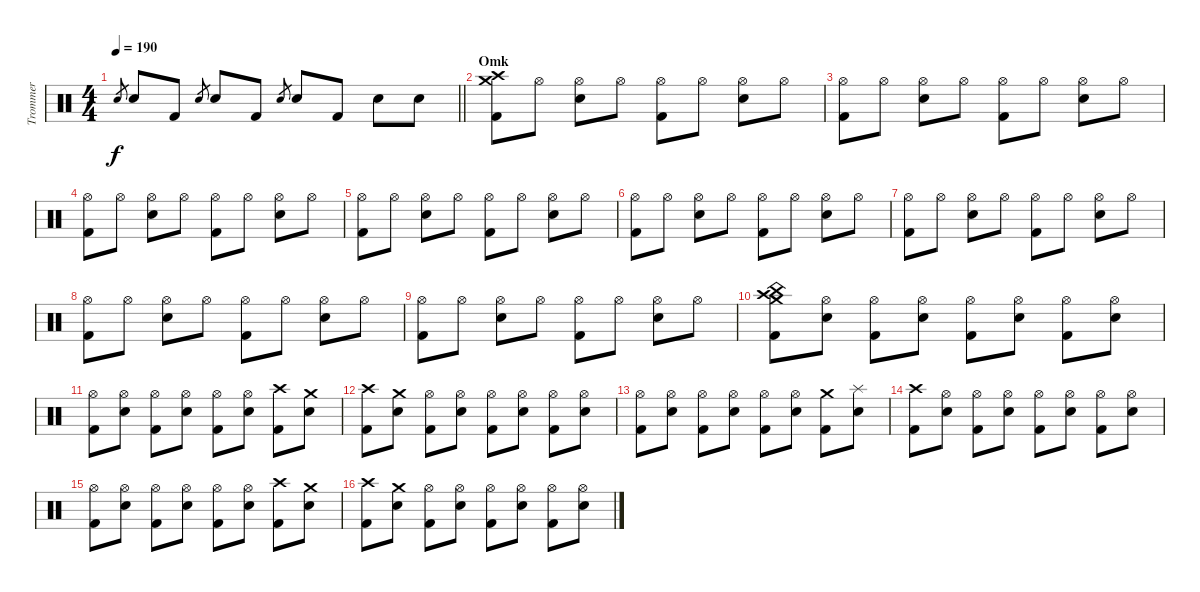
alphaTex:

\track ("Trommer" "Trommer") {instrument percussion}
\staff {score}
\articulation defaults
\ts (4 4)
\tempo 190
\clef neutral
\barLineRight lightlight
\ks c "Snare (hit) 2".8{gr dy f} "Snare (hit) 2".8 "Kick (hit) 2".8 "Snare (hit) 2".8{gr} "Snare (hit) 2".8 "Kick (hit) 2".8 "Snare (hit) 2".8{gr} "Snare (hit) 2".8 "Kick (hit) 2".8 "Snare (hit) 2".8 "Snare (hit) 2".8
|
\section ("" "Omk")
("Crash medium (hit)" "Crash high (hit)" "Kick (hit) 2").8 "Hi-Hat (open)".8 ("Hi-Hat (open)" "Snare (hit) 2").8 "Hi-Hat (open)".8 ("Hi-Hat (open)" "Kick (hit) 2").8 "Hi-Hat (open)".8 ("Hi-Hat (open)" "Snare (hit) 2").8 "Hi-Hat (open)".8 |
("Hi-Hat (open)" "Kick (hit) 2").8 "Hi-Hat (open)".8 ("Hi-Hat (open)" "Snare (hit) 2").8 "Hi-Hat (open)".8 ("Hi-Hat (open)" "Kick (hit) 2").8 "Hi-Hat (open)".8 ("Hi-Hat (open)" "Snare (hit) 2").8 "Hi-Hat (open)".8 |
("Hi-Hat (open)" "Kick (hit) 2").8 "Hi-Hat (open)".8 ("Hi-Hat (open)" "Snare (hit) 2").8 "Hi-Hat (open)".8 ("Hi-Hat (open)" "Kick (hit) 2").8 "Hi-Hat (open)".8 ("Hi-Hat (open)" "Snare (hit) 2").8 "Hi-Hat (open)".8 |
("Hi-Hat (open)" "Kick (hit) 2").8 "Hi-Hat (open)".8 ("Hi-Hat (open)" "Snare (hit) 2").8 "Hi-Hat (open)".8 ("Hi-Hat (open)" "Kick (hit) 2").8 "Hi-Hat (open)".8 ("Hi-Hat (open)" "Snare (hit) 2").8 "Hi-Hat (open)".8 |
("Hi-Hat (open)" "Kick (hit) 2").8 "Hi-Hat (open)".8 ("Hi-Hat (open)" "Snare (hit) 2").8 "Hi-Hat (open)".8 ("Hi-Hat (open)" "Kick (hit) 2").8 "Hi-Hat (open)".8 ("Hi-Hat (open)" "Snare (hit) 2").8 "Hi-Hat (open)".8 |
("Hi-Hat (open)" "Kick (hit) 2").8 "Hi-Hat (open)".8 ("Hi-Hat (open)" "Snare (hit) 2").8 "Hi-Hat (open)".8 ("Hi-Hat (open)" "Kick (hit) 2").8 "Hi-Hat (open)".8 ("Hi-Hat (open)" "Snare (hit) 2").8 "Hi-Hat (open)".8 |
("Hi-Hat (open)" "Kick (hit) 2").8 "Hi-Hat (open)".8 ("Hi-Hat (open)" "Snare (hit) 2").8 "Hi-Hat (open)".8 ("Hi-Hat (open)" "Kick (hit) 2").8 "Hi-Hat (open)".8 ("Hi-Hat (open)" "Snare (hit) 2").8 "Hi-Hat (open)".8 |
("Hi-Hat (open)" "Kick (hit) 2").8 "Hi-Hat (open)".8 ("Hi-Hat (open)" "Snare (hit) 2").8 "Hi-Hat (open)".8 ("Hi-Hat (open)" "Kick (hit) 2").8 "Hi-Hat (open)".8 ("Hi-Hat (open)" "Snare (hit) 2").8 "Hi-Hat (open)".8 |
("Crash medium (hit)" "Crash high (hit)" "China (hit)" "Kick (hit) 2").8 ("Hi-Hat (open)" "Snare (hit) 2").8 ("Hi-Hat (open)" "Kick (hit) 2").8 ("Hi-Hat (open)" "Snare (hit) 2").8 ("Hi-Hat (open)" "Kick (hit) 2").8 ("Hi-Hat (open)" "Snare (hit) 2").8 ("Hi-Hat (open)" "Kick (hit) 2").8 ("Hi-Hat (open)" "Snare (hit) 2").8 |
("Hi-Hat (open)" "Kick (hit) 2").8 ("Hi-Hat (open)" "Snare (hit) 2").8 ("Hi-Hat (open)" "Kick (hit) 2").8 ("Hi-Hat (open)" "Snare (hit) 2").8 ("Hi-Hat (open)" "Kick (hit) 2").8 ("Hi-Hat (open)" "Snare (hit) 2").8 ("Crash high (hit)" "Kick (hit) 2").8 ("Crash medium (hit)" "Snare (hit) 2").8 |
("Crash high (hit)" "Kick (hit) 2").8 ("Crash medium (hit)" "Snare (hit) 2").8 ("Hi-Hat (open)" "Kick (hit) 2").8 ("Hi-Hat (open)" "Snare (hit) 2").8 ("Hi-Hat (open)" "Kick (hit) 2").8 ("Hi-Hat (open)" "Snare (hit) 2").8 ("Hi-Hat (open)" "Kick (hit) 2").8 ("Hi-Hat (open)" "Snare (hit) 2").8 |
("Hi-Hat (open)" "Kick (hit) 2").8 ("Hi-Hat (open)" "Snare (hit) 2").8 ("Hi-Hat (open)" "Kick (hit) 2").8 ("Hi-Hat (open)" "Snare (hit) 2").8 ("Hi-Hat (open)" "Kick (hit) 2").8 ("Hi-Hat (open)" "Snare (hit) 2").8 ("Crash medium (hit)" "Kick (hit) 2").8 ("Splash (hit)" "Snare (hit) 2").8 |
("Crash high (hit)" "Kick (hit) 2").8 ("Hi-Hat (open)" "Snare (hit) 2").8 ("Hi-Hat (open)" "Kick (hit) 2").8 ("Hi-Hat (open)" "Snare (hit) 2").8 ("Hi-Hat (open)" "Kick (hit) 2").8 ("Hi-Hat (open)" "Snare (hit) 2").8 ("Hi-Hat (open)" "Kick (hit) 2").8 ("Hi-Hat (open)" "Snare (hit) 2").8 |
("Hi-Hat (open)" "Kick (hit) 2").8 ("Hi-Hat (open)" "Snare (hit) 2").8 ("Hi-Hat (open)" "Kick (hit) 2").8 ("Hi-Hat (open)" "Snare (hit) 2").8 ("Hi-Hat (open)" "Kick (hit) 2").8 ("Hi-Hat (open)" "Snare (hit) 2").8 ("Crash high (hit)" "Kick (hit) 2").8 ("Crash medium (hit)" "Snare (hit) 2").8 |
("Crash high (hit)" "Kick (hit) 2").8 ("Crash medium (hit)" "Snare (hit) 2").8 ("Hi-Hat (open)" "Kick (hit) 2").8 ("Hi-Hat (open)" "Snare (hit) 2").8 ("Hi-Hat (open)" "Kick (hit) 2").8 ("Hi-Hat (open)" "Snare (hit) 2").8 ("Hi-Hat (open)" "Kick (hit) 2").8 ("Hi-Hat (open)" "Snare (hit) 2").8
